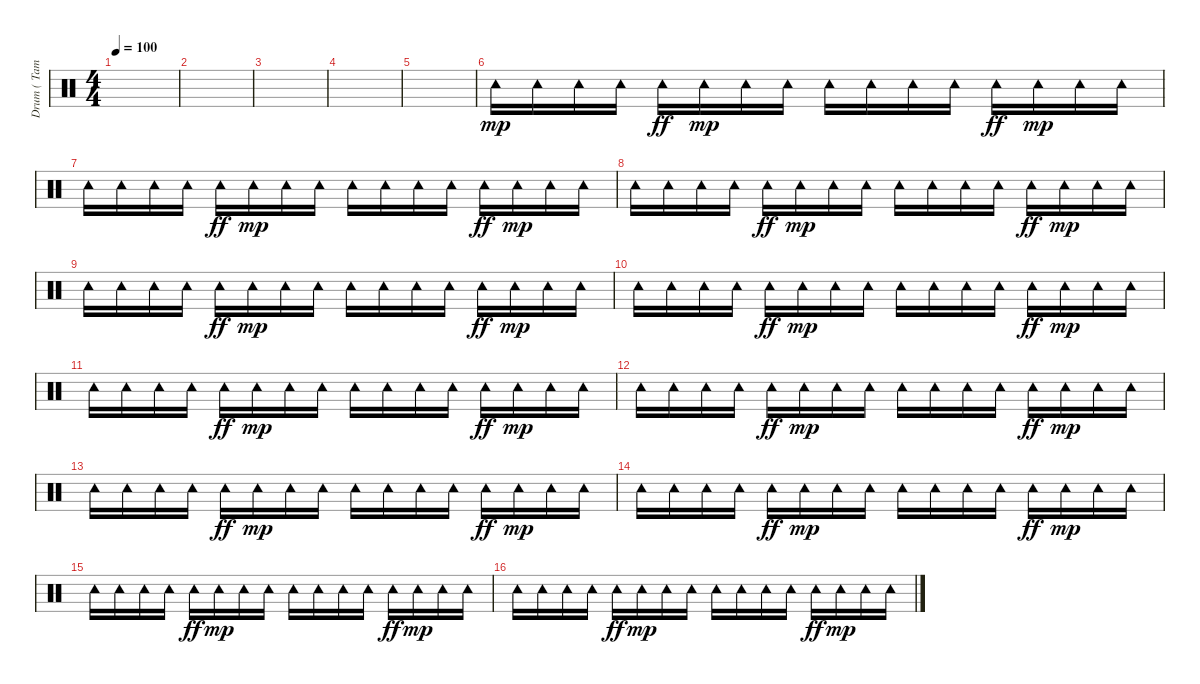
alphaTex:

\track ("Drum ( Tambourine )" "Drum ( Tam") {instrument percussion}
\staff {score}
\articulation defaults
\ts (4 4)
\tempo 100
\clef neutral
\ks c
|
|
|
|
|
"Tambourine (hit)".16{dy mp} "Tambourine (hit)".16 "Tambourine (hit)".16 "Tambourine (hit)".16 "Tambourine (hit)".16{dy ff} "Tambourine (hit)".16{dy mp} "Tambourine (hit)".16 "Tambourine (hit)".16 "Tambourine (hit)".16 "Tambourine (hit)".16 "Tambourine (hit)".16 "Tambourine (hit)".16 "Tambourine (hit)".16{dy ff} "Tambourine (hit)".16{dy mp} "Tambourine (hit)".16 "Tambourine (hit)".16 |
"Tambourine (hit)".16 "Tambourine (hit)".16 "Tambourine (hit)".16 "Tambourine (hit)".16 "Tambourine (hit)".16{dy ff} "Tambourine (hit)".16{dy mp} "Tambourine (hit)".16 "Tambourine (hit)".16 "Tambourine (hit)".16 "Tambourine (hit)".16 "Tambourine (hit)".16 "Tambourine (hit)".16 "Tambourine (hit)".16{dy ff} "Tambourine (hit)".16{dy mp} "Tambourine (hit)".16 "Tambourine (hit)".16 |
"Tambourine (hit)".16 "Tambourine (hit)".16 "Tambourine (hit)".16 "Tambourine (hit)".16 "Tambourine (hit)".16{dy ff} "Tambourine (hit)".16{dy mp} "Tambourine (hit)".16 "Tambourine (hit)".16 "Tambourine (hit)".16 "Tambourine (hit)".16 "Tambourine (hit)".16 "Tambourine (hit)".16 "Tambourine (hit)".16{dy ff} "Tambourine (hit)".16{dy mp} "Tambourine (hit)".16 "Tambourine (hit)".16 |
"Tambourine (hit)".16 "Tambourine (hit)".16 "Tambourine (hit)".16 "Tambourine (hit)".16 "Tambourine (hit)".16{dy ff} "Tambourine (hit)".16{dy mp} "Tambourine (hit)".16 "Tambourine (hit)".16 "Tambourine (hit)".16 "Tambourine (hit)".16 "Tambourine (hit)".16 "Tambourine (hit)".16 "Tambourine (hit)".16{dy ff} "Tambourine (hit)".16{dy mp} "Tambourine (hit)".16 "Tambourine (hit)".16 |
"Tambourine (hit)".16 "Tambourine (hit)".16 "Tambourine (hit)".16 "Tambourine (hit)".16 "Tambourine (hit)".16{dy ff} "Tambourine (hit)".16{dy mp} "Tambourine (hit)".16 "Tambourine (hit)".16 "Tambourine (hit)".16 "Tambourine (hit)".16 "Tambourine (hit)".16 "Tambourine (hit)".16 "Tambourine (hit)".16{dy ff} "Tambourine (hit)".16{dy mp} "Tambourine (hit)".16 "Tambourine (hit)".16 |
"Tambourine (hit)".16 "Tambourine (hit)".16 "Tambourine (hit)".16 "Tambourine (hit)".16 "Tambourine (hit)".16{dy ff} "Tambourine (hit)".16{dy mp} "Tambourine (hit)".16 "Tambourine (hit)".16 "Tambourine (hit)".16 "Tambourine (hit)".16 "Tambourine (hit)".16 "Tambourine (hit)".16 "Tambourine (hit)".16{dy ff} "Tambourine (hit)".16{dy mp} "Tambourine (hit)".16 "Tambourine (hit)".16 |
"Tambourine (hit)".16 "Tambourine (hit)".16 "Tambourine (hit)".16 "Tambourine (hit)".16 "Tambourine (hit)".16{dy ff} "Tambourine (hit)".16{dy mp} "Tambourine (hit)".16 "Tambourine (hit)".16 "Tambourine (hit)".16 "Tambourine (hit)".16 "Tambourine (hit)".16 "Tambourine (hit)".16 "Tambourine (hit)".16{dy ff} "Tambourine (hit)".16{dy mp} "Tambourine (hit)".16 "Tambourine (hit)".16 |
"Tambourine (hit)".16 "Tambourine (hit)".16 "Tambourine (hit)".16 "Tambourine (hit)".16 "Tambourine (hit)".16{dy ff} "Tambourine (hit)".16{dy mp} "Tambourine (hit)".16 "Tambourine (hit)".16 "Tambourine (hit)".16 "Tambourine (hit)".16 "Tambourine (hit)".16 "Tambourine (hit)".16 "Tambourine (hit)".16{dy ff} "Tambourine (hit)".16{dy mp} "Tambourine (hit)".16 "Tambourine (hit)".16 |
"Tambourine (hit)".16 "Tambourine (hit)".16 "Tambourine (hit)".16 "Tambourine (hit)".16 "Tambourine (hit)".16{dy ff} "Tambourine (hit)".16{dy mp} "Tambourine (hit)".16 "Tambourine (hit)".16 "Tambourine (hit)".16 "Tambourine (hit)".16 "Tambourine (hit)".16 "Tambourine (hit)".16 "Tambourine (hit)".16{dy ff} "Tambourine (hit)".16{dy mp} "Tambourine (hit)".16 "Tambourine (hit)".16 |
"Tambourine (hit)".16 "Tambourine (hit)".16 "Tambourine (hit)".16 "Tambourine (hit)".16 "Tambourine (hit)".16{dy ff} "Tambourine (hit)".16{dy mp} "Tambourine (hit)".16 "Tambourine (hit)".16 "Tambourine (hit)".16 "Tambourine (hit)".16 "Tambourine (hit)".16 "Tambourine (hit)".16 "Tambourine (hit)".16{dy ff} "Tambourine (hit)".16{dy mp} "Tambourine (hit)".16 "Tambourine (hit)".16 |
"Tambourine (hit)".16 "Tambourine (hit)".16 "Tambourine (hit)".16 "Tambourine (hit)".16 "Tambourine (hit)".16{dy ff} "Tambourine (hit)".16{dy mp} "Tambourine (hit)".16 "Tambourine (hit)".16 "Tambourine (hit)".16 "Tambourine (hit)".16 "Tambourine (hit)".16 "Tambourine (hit)".16 "Tambourine (hit)".16{dy ff} "Tambourine (hit)".16{dy mp} "Tambourine (hit)".16 "Tambourine (hit)".16
